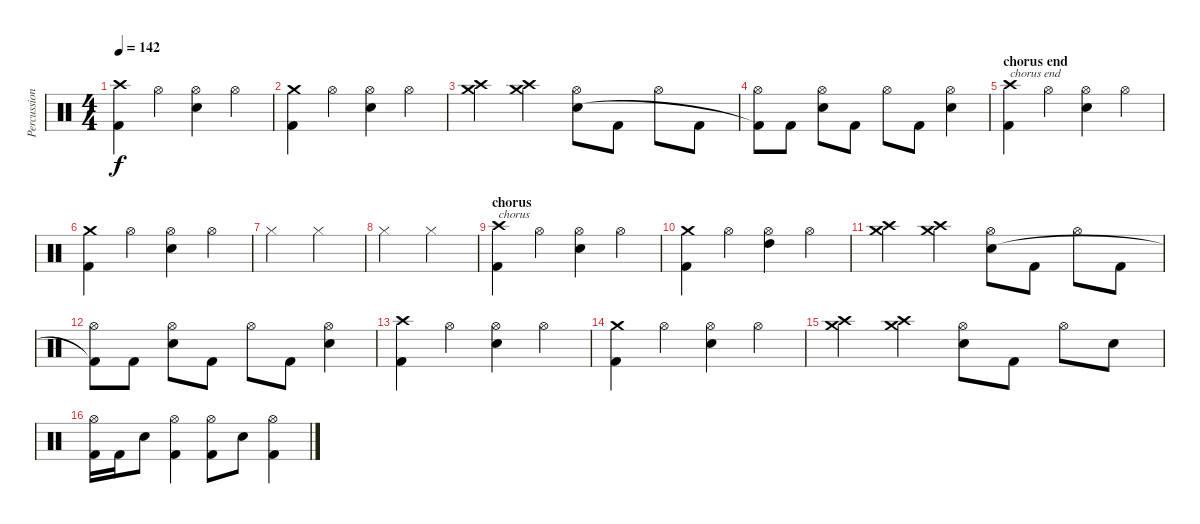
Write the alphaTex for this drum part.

\track ("Percussion" "Percussion") {instrument percussion}
\staff {score}
\articulation defaults
\ts (4 4)
\tempo 142
\clef neutral
\ks c
("Crash high (hit)" "Kick (hit) 2").4{dy f} "Hi-Hat (open)".4 ("Hi-Hat (open)" "Snare (hit) 2").4 "Hi-Hat (open)".4 |
("Crash medium (hit)" "Kick (hit) 2").4 "Hi-Hat (open)".4 ("Hi-Hat (open)" "Snare (hit) 2").4 "Hi-Hat (open)".4 |
("Crash medium (hit)" "Crash high (hit)").4 ("Crash medium (hit)" "Crash high (hit)").4 ("Hi-Hat (open)" "Snare (hit) 2").8 "Kick (hit) 2".8 "Hi-Hat (open)".8 "Kick (hit) 2".8 |
("Hi-Hat (open)" "Kick (hit) 2"{t}).8 "Kick (hit) 2".8 ("Hi-Hat (open)" "Snare (hit) 2").8 "Kick (hit) 2".8 "Hi-Hat (open)".8 "Kick (hit) 2".8 ("Hi-Hat (open)" "Snare (hit) 2").4 |
\section ("" "chorus end")
("Crash high (hit)" "Kick (hit) 2").4{txt "chorus end"} "Hi-Hat (open)".4 ("Hi-Hat (open)" "Snare (hit) 2").4 "Hi-Hat (open)".4 |
("Crash medium (hit)" "Kick (hit) 2").4 "Hi-Hat (open)".4 ("Hi-Hat (open)" "Snare (hit) 2").4 "Hi-Hat (open)".4 |
"Hi-Hat (closed)".2 "Hi-Hat (closed)".2 |
"Hi-Hat (closed)".2 "Hi-Hat (closed)".2 |
\section ("" "chorus")
("Crash high (hit)" "Kick (hit) 2").4{txt "chorus"} "Hi-Hat (open)".4 ("Hi-Hat (open)" "Snare (hit) 2").4 "Hi-Hat (open)".4 |
("Crash medium (hit)" "Kick (hit) 2").4 "Hi-Hat (open)".4 ("Hi-Hat (open)" "High Tom (hit)").4 "Hi-Hat (open)".4 |
("Crash medium (hit)" "Crash high (hit)").4 ("Crash medium (hit)" "Crash high (hit)").4 ("Hi-Hat (open)" "Snare (hit) 2").8 "Kick (hit) 2".8 "Hi-Hat (open)".8 "Kick (hit) 2".8 |
("Hi-Hat (open)" "Kick (hit) 2"{t}).8 "Kick (hit) 2".8 ("Hi-Hat (open)" "Snare (hit) 2").8 "Kick (hit) 2".8 "Hi-Hat (open)".8 "Kick (hit) 2".8 ("Hi-Hat (open)" "Snare (hit) 2").4 |
("Crash high (hit)" "Kick (hit) 2").4 "Hi-Hat (open)".4 ("Hi-Hat (open)" "Snare (hit) 2").4 "Hi-Hat (open)".4 |
("Crash medium (hit)" "Kick (hit) 2").4 "Hi-Hat (open)".4 ("Hi-Hat (open)" "Snare (hit) 2").4 "Hi-Hat (open)".4 |
("Crash medium (hit)" "Crash high (hit)").4 ("Crash medium (hit)" "Crash high (hit)").4 ("Hi-Hat (open)" "Snare (hit) 2").8 "Kick (hit) 2".8 "Hi-Hat (open)".8 "Snare (hit) 2".8 |
("Hi-Hat (open)" "Kick (hit) 2").16 "Kick (hit) 2".16 "Snare (hit) 2".8 ("Hi-Hat (open)" "Kick (hit) 2").4 ("Hi-Hat (open)" "Kick (hit) 2").8 "Snare (hit) 2".8 ("Hi-Hat (open)" "Kick (hit) 2").4
